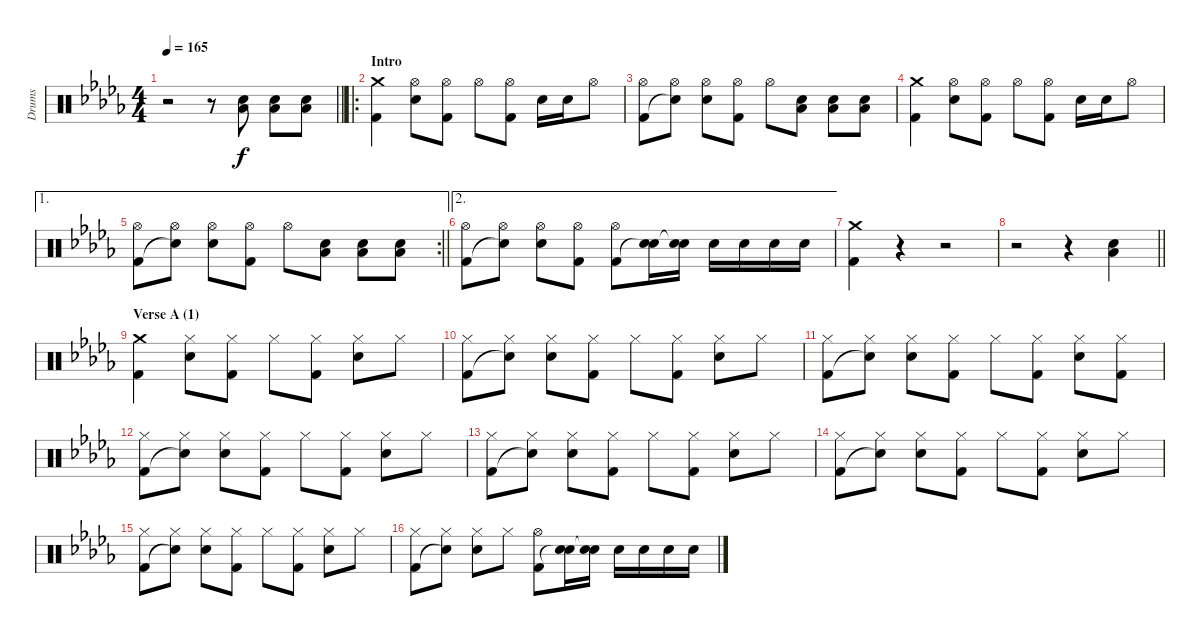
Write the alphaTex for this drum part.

\track ("Drums" "Drums") {instrument percussion}
\staff {score}
\articulation defaults
\ts (4 4)
\tempo 165
\clef neutral
\barLineRight lightlight
\ks bbminor
r.2{dy f} r.8 ("Electric Snare (hit)" "Low Floor Tom (hit)").8 ("Electric Snare (hit)" "Low Floor Tom (hit)").8 ("Electric Snare (hit)" "Low Floor Tom (hit)").8 |
\ro
\section ("" "Intro")
("Crash medium (hit)" "Kick (hit) 2").4 ("Hi-Hat (open)" "Electric Snare (hit)").8 ("Hi-Hat (open)" "Kick (hit) 2").8 "Hi-Hat (open)".8 ("Hi-Hat (open)" "Kick (hit) 2").8 "Electric Snare (hit)".16 "Electric Snare (hit)".16 "Hi-Hat (open)".8 |
("Hi-Hat (open)" "Kick (hit) 2").8 ("Hi-Hat (open)" "Snare (hit)"{t}).8 ("Hi-Hat (open)" "Electric Snare (hit)").8 ("Hi-Hat (open)" "Kick (hit) 2").8 "Hi-Hat (open)".8 ("Electric Snare (hit)" "Low Floor Tom (hit)").8 ("Electric Snare (hit)" "Low Floor Tom (hit)").8 ("Electric Snare (hit)" "Low Floor Tom (hit)").8 |
("Crash medium (hit)" "Kick (hit) 2").4 ("Hi-Hat (open)" "Electric Snare (hit)").8 ("Hi-Hat (open)" "Kick (hit) 2").8 "Hi-Hat (open)".8 ("Hi-Hat (open)" "Kick (hit) 2").8 "Electric Snare (hit)".16 "Electric Snare (hit)".16 "Hi-Hat (open)".8 |
\ae 1
\rc 2
\barLineRight lightlight
("Hi-Hat (open)" "Kick (hit) 2").8 ("Hi-Hat (open)" "Snare (hit)"{t}).8 ("Hi-Hat (open)" "Electric Snare (hit)").8 ("Hi-Hat (open)" "Kick (hit) 2").8 "Hi-Hat (open)".8 ("Electric Snare (hit)" "Low Floor Tom (hit)").8 ("Electric Snare (hit)" "Low Floor Tom (hit)").8 ("Electric Snare (hit)" "Low Floor Tom (hit)").8 |
\ae 2
("Hi-Hat (open)" "Kick (hit) 2").8 ("Hi-Hat (open)" "Snare (hit)"{t}).8 ("Hi-Hat (open)" "Electric Snare (hit)").8 ("Hi-Hat (open)" "Kick (hit) 2").8 ("Hi-Hat (open)" "Kick (hit) 2").8 ("Electric Snare (hit)" "Snare (hit)"{t}).16 ("Electric Snare (hit)" "Snare (hit)"{t}).16 "Electric Snare (hit)".16 "Electric Snare (hit)".16 "Electric Snare (hit)".16 "Electric Snare (hit)".16 |
("Crash medium (hit)" "Kick (hit) 2").4 r.4 r.2 |
\barLineRight lightlight
r.2 r.4 ("Electric Snare (hit)" "Low Floor Tom (hit)").4 |
\section ("" "Verse A (1)")
("Crash medium (hit)" "Kick (hit) 2").4 ("Hi-Hat (closed)" "Electric Snare (hit)").8 ("Hi-Hat (closed)" "Kick (hit) 2").8 "Hi-Hat (closed)".8 ("Hi-Hat (closed)" "Kick (hit) 2").8 ("Hi-Hat (closed)" "Electric Snare (hit)").8 "Hi-Hat (closed)".8 |
("Hi-Hat (closed)" "Kick (hit) 2").8 ("Hi-Hat (closed)" "Snare (hit)"{t}).8 ("Hi-Hat (closed)" "Electric Snare (hit)").8 ("Hi-Hat (closed)" "Kick (hit) 2").8 "Hi-Hat (closed)".8 ("Hi-Hat (closed)" "Kick (hit) 2").8 ("Hi-Hat (closed)" "Electric Snare (hit)").8 "Hi-Hat (closed)".8 |
("Hi-Hat (closed)" "Kick (hit) 2").8 ("Hi-Hat (closed)" "Snare (hit)"{t}).8 ("Hi-Hat (closed)" "Electric Snare (hit)").8 ("Hi-Hat (closed)" "Kick (hit) 2").8 "Hi-Hat (closed)".8 ("Hi-Hat (closed)" "Kick (hit) 2").8 ("Hi-Hat (closed)" "Electric Snare (hit)").8 ("Hi-Hat (closed)" "Kick (hit) 2").8 |
("Hi-Hat (closed)" "Kick (hit) 2").8 ("Hi-Hat (closed)" "Snare (hit)"{t}).8 ("Hi-Hat (closed)" "Electric Snare (hit)").8 ("Hi-Hat (closed)" "Kick (hit) 2").8 "Hi-Hat (closed)".8 ("Hi-Hat (closed)" "Kick (hit) 2").8 ("Hi-Hat (closed)" "Electric Snare (hit)").8 "Hi-Hat (closed)".8 |
("Hi-Hat (closed)" "Kick (hit) 2").8 ("Hi-Hat (closed)" "Snare (hit)"{t}).8 ("Hi-Hat (closed)" "Electric Snare (hit)").8 ("Hi-Hat (closed)" "Kick (hit) 2").8 "Hi-Hat (closed)".8 ("Hi-Hat (closed)" "Kick (hit) 2").8 ("Hi-Hat (closed)" "Electric Snare (hit)").8 "Hi-Hat (closed)".8 |
("Hi-Hat (closed)" "Kick (hit) 2").8 ("Hi-Hat (closed)" "Snare (hit)"{t}).8 ("Hi-Hat (closed)" "Electric Snare (hit)").8 ("Hi-Hat (closed)" "Kick (hit) 2").8 "Hi-Hat (closed)".8 ("Hi-Hat (closed)" "Kick (hit) 2").8 ("Hi-Hat (closed)" "Electric Snare (hit)").8 "Hi-Hat (closed)".8 |
("Hi-Hat (closed)" "Kick (hit) 2").8 ("Hi-Hat (closed)" "Snare (hit)"{t}).8 ("Hi-Hat (closed)" "Electric Snare (hit)").8 ("Hi-Hat (closed)" "Kick (hit) 2").8 "Hi-Hat (closed)".8 ("Hi-Hat (closed)" "Kick (hit) 2").8 ("Hi-Hat (closed)" "Electric Snare (hit)").8 "Hi-Hat (closed)".8 |
("Hi-Hat (closed)" "Kick (hit) 2").8 ("Hi-Hat (closed)" "Snare (hit)"{t}).8 ("Hi-Hat (closed)" "Electric Snare (hit)").8 "Hi-Hat (closed)".8 ("Hi-Hat (open)" "Kick (hit) 2").8 ("Electric Snare (hit)" "Snare (hit)"{t}).16 ("Electric Snare (hit)" "Snare (hit)"{t}).16 "Electric Snare (hit)".16 "Electric Snare (hit)".16 "Electric Snare (hit)".16 "Electric Snare (hit)".16
